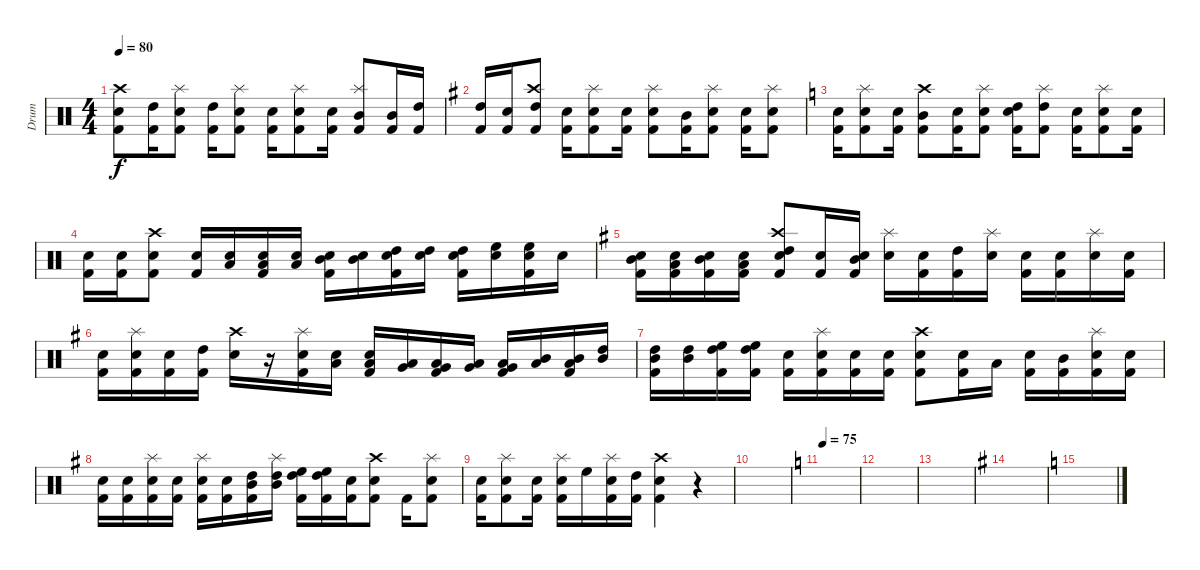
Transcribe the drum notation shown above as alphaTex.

\track ("Drum" "Drum") {instrument percussion}
\staff {score}
\articulation defaults
\ts (4 4)
\tempo 80
\clef neutral
\ks c
("Electric Snare (hit)" "Kick (hit) 2" "Crash high (hit)").8{dy f} ("High Tom (hit)" "Kick (hit) 2").16 ("Electric Snare (hit)" "Kick (hit) 2" "Splash (hit)").8 ("High Tom (hit)" "Kick (hit) 2").16 ("Electric Snare (hit)" "Kick (hit) 2" "Splash (hit)").8 ("Electric Snare (hit)" "Kick (hit) 2").16 ("Electric Snare (hit)" "Kick (hit) 2" "Splash (hit)").8 ("Electric Snare (hit)" "Kick (hit) 2").16 ("Mid Tom (hit)" "Kick (hit) 2" "Splash (hit)").8 ("Mid Tom (hit)" "Kick (hit) 2").16 ("High Tom (hit)" "Kick (hit) 2").16 |
\ks eminor
("High Tom (hit)" "Kick (hit) 2").16 ("Electric Snare (hit)" "Kick (hit) 2").16 ("High Tom (hit)" "Kick (hit) 2" "Crash high (hit)").8 ("Electric Snare (hit)" "Kick (hit) 2").16 ("Electric Snare (hit)" "Kick (hit) 2" "Splash (hit)").8 ("Electric Snare (hit)" "Kick (hit) 2").16 ("Electric Snare (hit)" "Kick (hit) 2" "Splash (hit)").8 ("Mid Tom (hit)" "Kick (hit) 2").16 ("Electric Snare (hit)" "Kick (hit) 2" "Splash (hit)").8 ("Electric Snare (hit)" "Kick (hit) 2").16 ("Electric Snare (hit)" "Kick (hit) 2" "Splash (hit)").8 |
\ks c
("Electric Snare (hit)" "Kick (hit) 2").16 ("Electric Snare (hit)" "Kick (hit) 2" "Splash (hit)").8 ("Electric Snare (hit)" "Kick (hit) 2").16 ("Mid Tom (hit)" "Kick (hit) 2" "Crash high (hit)").8 ("Electric Snare (hit)" "Kick (hit) 2").16 ("Electric Snare (hit)" "Kick (hit) 2" "Splash (hit)").8 ("Electric Snare (hit)" "High Tom (hit)" "Kick (hit) 2").16 ("High Tom (hit)" "Kick (hit) 2" "Splash (hit)").8 ("Electric Snare (hit)" "Kick (hit) 2").16 ("Electric Snare (hit)" "Kick (hit) 2" "Splash (hit)").8 ("Electric Snare (hit)" "Kick (hit) 2").16 |
("Electric Snare (hit)" "Kick (hit) 2").16 ("Electric Snare (hit)" "Kick (hit) 2").16 ("Electric Snare (hit)" "Kick (hit) 2" "Crash high (hit)").8 ("Electric Snare (hit)" "Kick (hit) 2").16 ("Electric Snare (hit)" "Low Tom (hit)").16 ("Electric Snare (hit)" "Low Tom (hit)" "Kick (hit) 2").16 ("Electric Snare (hit)" "Low Tom (hit)").16 ("Electric Snare (hit)" "Mid Tom (hit)" "Kick (hit) 2").16 ("Electric Snare (hit)" "Mid Tom (hit)").16 ("Electric Snare (hit)" "High Tom (hit)" "Kick (hit) 2").16 ("Electric Snare (hit)" "High Tom (hit)").16 ("Electric Snare (hit)" "High Tom (hit)" "Kick (hit) 2").16 ("Electric Snare (hit)" "High Floor Tom (hit)").16 ("Electric Snare (hit)" "High Floor Tom (hit)" "Kick (hit) 2").16 "Electric Snare (hit)".16 |
\ks eminor
("Electric Snare (hit)" "Mid Tom (hit)" "Kick (hit) 2").16 ("Electric Snare (hit)" "Low Tom (hit)" "Kick (hit) 2").16 ("Electric Snare (hit)" "Mid Tom (hit)" "Kick (hit) 2").16 ("Electric Snare (hit)" "Low Tom (hit)" "Kick (hit) 2").16 ("Electric Snare (hit)" "High Tom (hit)" "Kick (hit) 2" "Crash high (hit)").8 ("Electric Snare (hit)" "Kick (hit) 2").16 ("Electric Snare (hit)" "Mid Tom (hit)" "Kick (hit) 2").16 ("Electric Snare (hit)" "Splash (hit)").16 ("Electric Snare (hit)" "Kick (hit) 2").16 ("High Tom (hit)" "Kick (hit) 2").16 ("Electric Snare (hit)" "Splash (hit)").16 ("Electric Snare (hit)" "Kick (hit) 2").16 ("Electric Snare (hit)" "Kick (hit) 2").16 ("Electric Snare (hit)" "Splash (hit)").16 ("Electric Snare (hit)" "Kick (hit) 2").16 |
("Electric Snare (hit)" "Kick (hit) 2").16 ("Electric Snare (hit)" "Kick (hit) 2" "Splash (hit)").16 ("Electric Snare (hit)" "Kick (hit) 2").16 ("High Tom (hit)" "Kick (hit) 2").16 ("Electric Snare (hit)" "Crash high (hit)").16 r.16 ("Electric Snare (hit)" "Kick (hit) 2" "Splash (hit)").16 ("Electric Snare (hit)" "Low Floor Tom (hit)").16 ("Electric Snare (hit)" "Low Floor Tom (hit)" "Kick (hit) 2").16 ("Low Floor Tom (hit)" "Very Low Tom (hit)").16 ("Low Floor Tom (hit)" "Very Low Tom (hit)" "Kick (hit) 2").16 ("Very Low Tom (hit)" "Low Tom (hit)").16 ("Very Low Tom (hit)" "Low Tom (hit)" "Kick (hit) 2").16 ("Low Tom (hit)" "Mid Tom (hit)").16 ("Low Tom (hit)" "Mid Tom (hit)" "Kick (hit) 2").16 ("Mid Tom (hit)" "High Tom (hit)").16 |
("Mid Tom (hit)" "High Tom (hit)" "Kick (hit) 2").16 ("Mid Tom (hit)" "High Tom (hit)").16 ("High Tom (hit)" "High Floor Tom (hit)" "Kick (hit) 2").16 ("High Tom (hit)" "High Floor Tom (hit)" "Kick (hit) 2").16 ("Electric Snare (hit)" "Kick (hit) 2").16 ("Electric Snare (hit)" "Kick (hit) 2" "Splash (hit)").16 ("Electric Snare (hit)" "Kick (hit) 2").16 ("Electric Snare (hit)" "Kick (hit) 2").16 ("Electric Snare (hit)" "Kick (hit) 2" "Crash high (hit)").8 ("Electric Snare (hit)" "Kick (hit) 2").16 "Low Tom (hit)".16 ("Electric Snare (hit)" "Kick (hit) 2").16 ("Mid Tom (hit)" "Kick (hit) 2").16 ("Electric Snare (hit)" "Kick (hit) 2" "Splash (hit)").16 ("Electric Snare (hit)" "Kick (hit) 2").16 |
("Electric Snare (hit)" "Kick (hit) 2").16 ("Electric Snare (hit)" "Kick (hit) 2").16 ("Electric Snare (hit)" "Kick (hit) 2" "Splash (hit)").16 ("Electric Snare (hit)" "Kick (hit) 2").16 ("Electric Snare (hit)" "Kick (hit) 2" "Splash (hit)").16 ("Electric Snare (hit)" "Kick (hit) 2").16 ("Mid Tom (hit)" "High Tom (hit)" "Kick (hit) 2").16 ("Mid Tom (hit)" "High Tom (hit)" "Splash (hit)").16 ("High Tom (hit)" "High Floor Tom (hit)" "Kick (hit) 2").16 ("High Tom (hit)" "High Floor Tom (hit)" "Kick (hit) 2").16 ("Electric Snare (hit)" "Kick (hit) 2").16 ("Electric Snare (hit)" "Kick (hit) 2" "Crash high (hit)").8 "Kick (hit) 2".16 ("Electric Snare (hit)" "Kick (hit) 2" "Splash (hit)").8 |
("Electric Snare (hit)" "Kick (hit) 2").16 ("Electric Snare (hit)" "Kick (hit) 2" "Splash (hit)").8 ("Electric Snare (hit)" "Kick (hit) 2").16 ("Electric Snare (hit)" "Kick (hit) 2" "Splash (hit)").16 "High Floor Tom (hit)".16 ("Electric Snare (hit)" "Kick (hit) 2" "Splash (hit)").16 ("High Tom (hit)" "Kick (hit) 2").16 ("Electric Snare (hit)" "Kick (hit) 2" "Crash high (hit)").4 r.4 |
|
\tempo 75
\ks c
|
|
|
\ks eminor
|
\ks c
